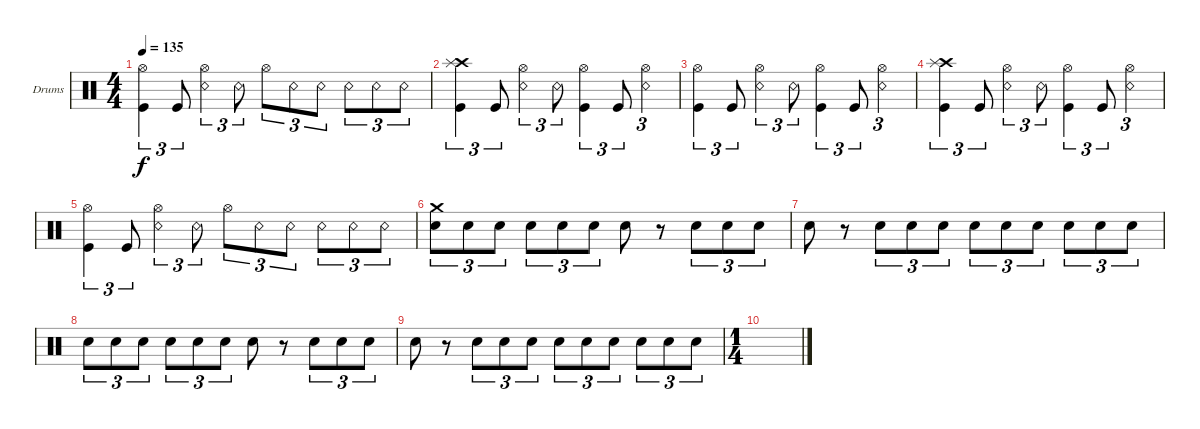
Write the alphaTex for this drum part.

\bracketExtendMode groupsimilarinstruments
\firstSystemTrackNameOrientation horizontal
\otherSystemsTrackNameOrientation horizontal
\track ("Drumkit" "Drums") {instrument percussion}
\staff {score}
\articulation defaults
\ts (4 4)
\tempo 135
\clef neutral
\scale
0.333333
\ks c
("Kick (hit)" "Hi-Hat (open)").4{tu (3 2) dy f} "Kick (hit)".8{tu (3 2)} ("Snare (rim shot)" "Hi-Hat (open)").4{tu (3 2)} "Snare (rim shot)".8{tu (3 2)} "Hi-Hat (open)".8{tu (3 2)} "Snare (rim shot)".8{tu (3 2)} "Snare (rim shot)".8{tu (3 2)} "Snare (rim shot)".8{tu (3 2)} "Snare (rim shot)".8{tu (3 2)} "Snare (rim shot)".8{tu (3 2)} |
\scale
0.333333 ("Kick (hit)" "Crash high (hit)" "Splash (hit)").4{tu (3 2)} "Kick (hit)".8{tu (3 2)} ("Snare (rim shot)" "Hi-Hat (open)").4{tu (3 2)} "Snare (rim shot)".8{tu (3 2)} ("Kick (hit)" "Hi-Hat (open)").4{tu (3 2)} "Kick (hit)".8{tu (3 2)} ("Snare (rim shot)" "Hi-Hat (open)").4{tu (3 2)} |
\scale
0.333333 ("Kick (hit)" "Hi-Hat (open)").4{tu (3 2)} "Kick (hit)".8{tu (3 2)} ("Snare (rim shot)" "Hi-Hat (open)").4{tu (3 2)} "Snare (rim shot)".8{tu (3 2)} ("Kick (hit)" "Hi-Hat (open)").4{tu (3 2)} "Kick (hit)".8{tu (3 2)} ("Snare (rim shot)" "Hi-Hat (open)").4{tu (3 2)} |
\scale
0.333333 ("Kick (hit)" "Crash high (hit)" "Splash (hit)").4{tu (3 2)} "Kick (hit)".8{tu (3 2)} ("Snare (rim shot)" "Hi-Hat (open)").4{tu (3 2)} "Snare (rim shot)".8{tu (3 2)} ("Kick (hit)" "Hi-Hat (open)").4{tu (3 2)} "Kick (hit)".8{tu (3 2)} ("Snare (rim shot)" "Hi-Hat (open)").4{tu (3 2)} |
\scale
0.333333 ("Kick (hit)" "Hi-Hat (open)").4{tu (3 2)} "Kick (hit)".8{tu (3 2)} ("Snare (rim shot)" "Hi-Hat (open)").4{tu (3 2)} "Snare (rim shot)".8{tu (3 2)} "Hi-Hat (open)".8{tu (3 2)} "Snare (rim shot)".8{tu (3 2)} "Snare (rim shot)".8{tu (3 2)} "Snare (rim shot)".8{tu (3 2)} "Snare (rim shot)".8{tu (3 2)} "Snare (rim shot)".8{tu (3 2)} |
\scale
0.333333 ("Snare (hit) 2" "Crash medium (hit)").8{tu (3 2)} "Snare (hit) 2".8{tu (3 2)} "Snare (hit) 2".8{tu (3 2)} "Snare (hit) 2".8{tu (3 2)} "Snare (hit) 2".8{tu (3 2)} "Snare (hit) 2".8{tu (3 2)} "Snare (hit) 2".8 r.8 "Snare (hit) 2".8{tu (3 2)} "Snare (hit) 2".8{tu (3 2)} "Snare (hit) 2".8{tu (3 2)} |
\scale
0.333333 "Snare (hit) 2".8 r.8 "Snare (hit) 2".8{tu (3 2)} "Snare (hit) 2".8{tu (3 2)} "Snare (hit) 2".8{tu (3 2)} "Snare (hit) 2".8{tu (3 2)} "Snare (hit) 2".8{tu (3 2)} "Snare (hit) 2".8{tu (3 2)} "Snare (hit) 2".8{tu (3 2)} "Snare (hit) 2".8{tu (3 2)} "Snare (hit) 2".8{tu (3 2)} |
\scale
0.333333 "Snare (hit) 2".8{tu (3 2)} "Snare (hit) 2".8{tu (3 2)} "Snare (hit) 2".8{tu (3 2)} "Snare (hit) 2".8{tu (3 2)} "Snare (hit) 2".8{tu (3 2)} "Snare (hit) 2".8{tu (3 2)} "Snare (hit) 2".8 r.8 "Snare (hit) 2".8{tu (3 2)} "Snare (hit) 2".8{tu (3 2)} "Snare (hit) 2".8{tu (3 2)} |
\scale
0.333333 "Snare (hit) 2".8 r.8 "Snare (hit) 2".8{tu (3 2)} "Snare (hit) 2".8{tu (3 2)} "Snare (hit) 2".8{tu (3 2)} "Snare (hit) 2".8{tu (3 2)} "Snare (hit) 2".8{tu (3 2)} "Snare (hit) 2".8{tu (3 2)} "Snare (hit) 2".8{tu (3 2)} "Snare (hit) 2".8{tu (3 2)} "Snare (hit) 2".8{tu (3 2)} |
\ts (1 4)
\beaming (8 2)
